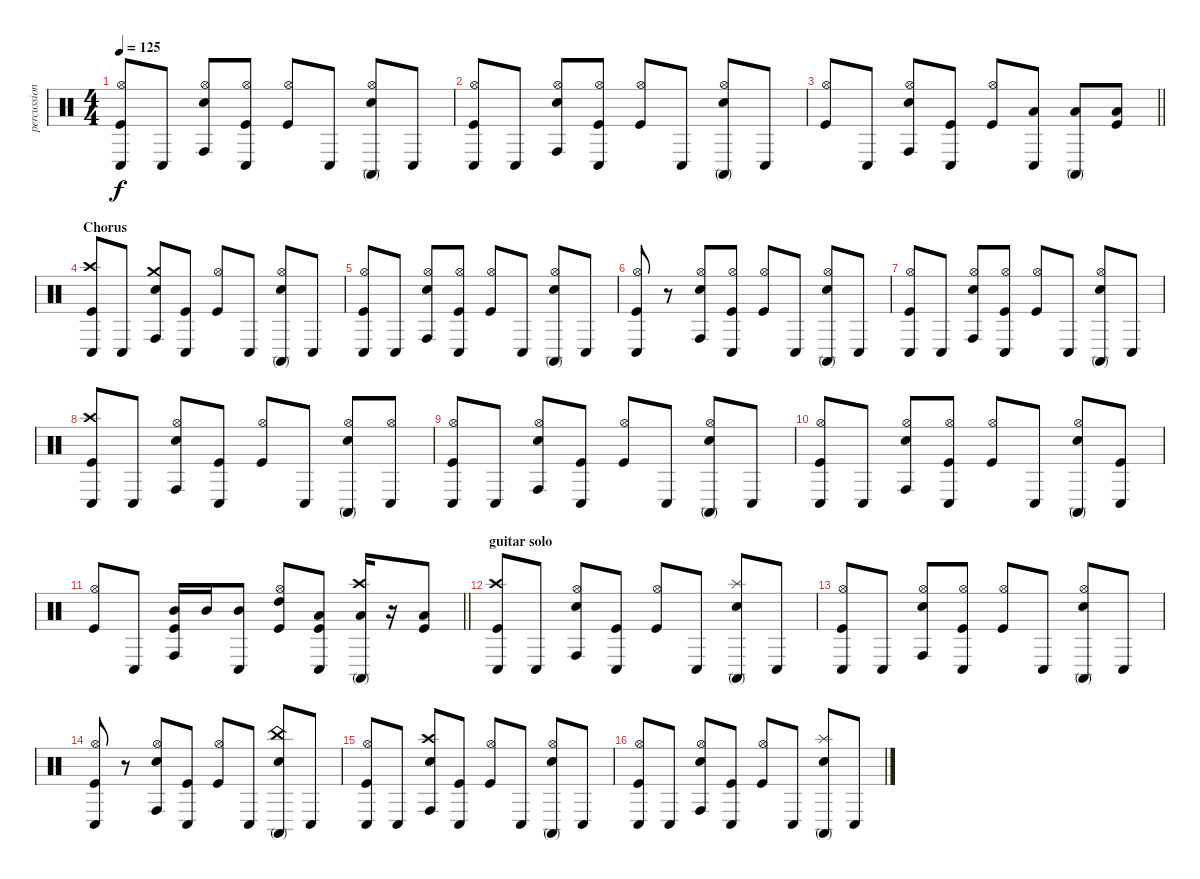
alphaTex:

\track ("percussion" "percussion") {instrument percussion}
\staff {score}
\articulation defaults
\ts (4 4)
\tempo 125
\clef neutral
\ks c
("Conga low (hit)" "Hi-Hat (open)" "Kick (hit)").8{dy f} "Conga low (hit)".8 ("Conga high (hit)" "Electric Snare (hit)" "Hi-Hat (open)").8 ("Conga low (hit)" "Hi-Hat (open)" "Kick (hit)").8 ("Hi-Hat (open)" "Kick (hit)").8 "Conga low (hit)".8 ("Conga high (mute)" "Electric Snare (hit)" "Hi-Hat (open)").8 "Conga low (hit)".8 |
("Conga low (hit)" "Hi-Hat (open)" "Kick (hit)").8 "Conga low (hit)".8 ("Conga high (hit)" "Electric Snare (hit)" "Hi-Hat (open)").8 ("Conga low (hit)" "Hi-Hat (open)" "Kick (hit)").8 ("Hi-Hat (open)" "Kick (hit)").8 "Conga low (hit)".8 ("Conga high (mute)" "Electric Snare (hit)" "Hi-Hat (open)").8 "Conga low (hit)".8 |
\barLineRight lightlight
("Hi-Hat (open)" "Kick (hit)").8 "Conga low (hit)".8 ("Conga high (hit)" "Electric Snare (hit)" "Hi-Hat (open)").8 ("Conga low (hit)" "Kick (hit)").8 ("Hi-Hat (open)" "Kick (hit)").8 ("Conga low (hit)" "Low Tom (hit)").8 ("Conga high (mute)" "Low Tom (hit)").8 ("Low Floor Tom (hit)" "Kick (hit)").8 |
\section ("" "Chorus")
("Crash high (hit)" "Conga low (hit)" "Kick (hit)").8 "Conga low (hit)".8 ("Crash medium (hit)" "Conga high (hit)" "Electric Snare (hit)").8 ("Conga low (hit)" "Kick (hit)").8 ("Hi-Hat (open)" "Kick (hit)").8 "Conga low (hit)".8 ("Conga high (mute)" "Electric Snare (hit)" "Hi-Hat (open)").8 "Conga low (hit)".8 |
("Conga low (hit)" "Hi-Hat (open)" "Kick (hit)").8 "Conga low (hit)".8 ("Conga high (hit)" "Electric Snare (hit)" "Hi-Hat (open)").8 ("Conga low (hit)" "Hi-Hat (open)" "Kick (hit)").8 ("Hi-Hat (open)" "Kick (hit)").8 "Conga low (hit)".8 ("Conga high (mute)" "Electric Snare (hit)" "Hi-Hat (open)").8 "Conga low (hit)".8 |
("Conga low (hit)" "Hi-Hat (open)" "Kick (hit)").8 r.8 ("Conga high (hit)" "Electric Snare (hit)" "Hi-Hat (open)").8 ("Conga low (hit)" "Hi-Hat (open)" "Kick (hit)").8 ("Hi-Hat (open)" "Kick (hit)").8 "Conga low (hit)".8 ("Conga high (mute)" "Electric Snare (hit)" "Hi-Hat (open)").8 "Conga low (hit)".8 |
("Conga low (hit)" "Hi-Hat (open)" "Kick (hit)").8 "Conga low (hit)".8 ("Conga high (hit)" "Electric Snare (hit)" "Hi-Hat (open)").8 ("Conga low (hit)" "Hi-Hat (open)" "Kick (hit)").8 ("Hi-Hat (open)" "Kick (hit)").8 "Conga low (hit)".8 ("Conga high (mute)" "Electric Snare (hit)" "Hi-Hat (open)").8 "Conga low (hit)".8 |
("Crash high (hit)" "Conga low (hit)" "Kick (hit)").8 "Conga low (hit)".8 ("Conga high (hit)" "Electric Snare (hit)" "Hi-Hat (open)").8 ("Conga low (hit)" "Kick (hit)").8 ("Hi-Hat (open)" "Kick (hit)").8 "Conga low (hit)".8 ("Conga high (mute)" "Electric Snare (hit)" "Hi-Hat (open)").8 ("Conga low (hit)" "Hi-Hat (open)").8 |
("Conga low (hit)" "Hi-Hat (open)" "Kick (hit)").8 "Conga low (hit)".8 ("Conga high (hit)" "Electric Snare (hit)" "Hi-Hat (open)").8 ("Conga low (hit)" "Kick (hit)").8 ("Hi-Hat (open)" "Kick (hit)").8 "Conga low (hit)".8 ("Conga high (mute)" "Electric Snare (hit)" "Hi-Hat (open)").8 "Conga low (hit)".8 |
("Conga low (hit)" "Hi-Hat (open)" "Kick (hit)").8 "Conga low (hit)".8 ("Conga high (hit)" "Electric Snare (hit)" "Hi-Hat (open)").8 ("Conga low (hit)" "Hi-Hat (open)" "Kick (hit)").8 ("Hi-Hat (open)" "Kick (hit)").8 "Conga low (hit)".8 ("Conga high (mute)" "Electric Snare (hit)" "Hi-Hat (open)").8 ("Conga low (hit)" "Kick (hit)").8 |
\barLineRight lightlight
("Hi-Hat (open)" "Kick (hit)").8 "Conga low (hit)".8 ("Conga high (hit)" "Mid Tom (hit)" "Kick (hit)").16 "Mid Tom (hit)".16 ("Conga low (hit)" "Mid Tom (hit)").8 ("High Tom (hit)" "Hi-Hat (open)" "Kick (hit)").8 ("Conga low (hit)" "Low Tom (hit)" "Kick (hit)").8 ("Crash high (hit)" "Conga high (mute)" "Low Tom (hit)").16 r.16 ("Low Floor Tom (hit)" "Kick (hit)").8 |
\section ("" "guitar solo")
("Crash high (hit)" "Conga low (hit)" "Kick (hit)").8 "Conga low (hit)".8 ("Conga high (hit)" "Electric Snare (hit)" "Hi-Hat (open)").8 ("Conga low (hit)" "Kick (hit)").8 ("Hi-Hat (open)" "Kick (hit)").8 "Conga low (hit)".8 ("Splash (hit)" "Conga high (mute)" "Electric Snare (hit)").8 "Conga low (hit)".8 |
("Conga low (hit)" "Hi-Hat (open)" "Kick (hit)").8 "Conga low (hit)".8 ("Conga high (hit)" "Electric Snare (hit)" "Hi-Hat (open)").8 ("Conga low (hit)" "Hi-Hat (open)" "Kick (hit)").8 ("Hi-Hat (open)" "Kick (hit)").8 "Conga low (hit)".8 ("Conga high (mute)" "Electric Snare (hit)" "Hi-Hat (open)").8 "Conga low (hit)".8 |
("Conga low (hit)" "Hi-Hat (open)" "Kick (hit)").8 r.8 ("Conga high (hit)" "Electric Snare (hit)" "Hi-Hat (open)").8 ("Conga low (hit)" "Kick (hit)").8 ("Hi-Hat (open)" "Kick (hit)").8 "Conga low (hit)".8 ("China (hit)" "Conga high (mute)" "Electric Snare (hit)").8 "Conga low (hit)".8 |
("Conga low (hit)" "Hi-Hat (open)" "Kick (hit)").8 "Conga low (hit)".8 ("Crash high (hit)" "Conga high (hit)" "Electric Snare (hit)").8 ("Conga low (hit)" "Kick (hit)").8 ("Hi-Hat (open)" "Kick (hit)").8 "Conga low (hit)".8 ("Conga high (mute)" "Electric Snare (hit)" "Hi-Hat (open)").8 "Conga low (hit)".8 |
("Conga low (hit)" "Hi-Hat (open)" "Kick (hit)").8 "Conga low (hit)".8 ("Conga high (hit)" "Electric Snare (hit)" "Hi-Hat (open)").8 ("Conga low (hit)" "Kick (hit)").8 ("Hi-Hat (open)" "Kick (hit)").8 "Conga low (hit)".8 ("Splash (hit)" "Conga high (mute)" "Electric Snare (hit)").8 "Conga low (hit)".8
